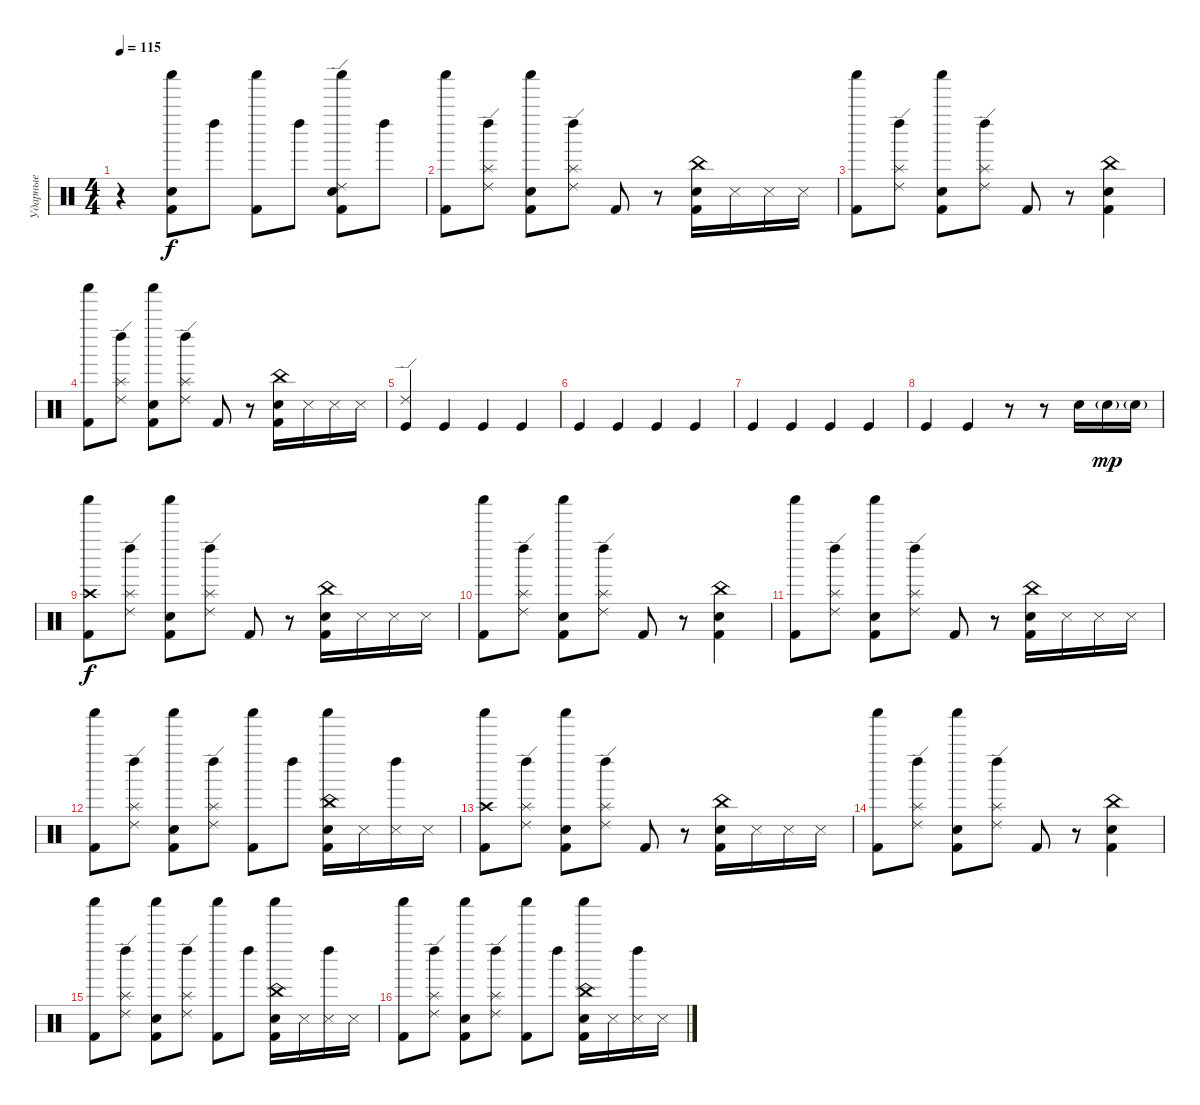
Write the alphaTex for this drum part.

\track ("Ударные" "Ударные") {instrument percussion}
\staff {score}
\articulation defaults
\ts (4 4)
\tempo 115
\clef neutral
\ks c
r.4{dy f} ("Kick (hit) 2" "Snare (hit) 2" "Shaker (hit)").8 "Left Maraca (hit)".8 ("Kick (hit) 2" "Shaker (hit)").8 "Left Maraca (hit)".8 ("Kick (hit) 2" "Ride (edge) 2" "Snare (hit) 2" "Shaker (hit)").8 "Left Maraca (hit)".8 |
("Kick (hit) 2" "Shaker (hit)").8 ("Left Maraca (hit)" "Ride (edge) 2" "Splash (hit)").8 ("Kick (hit) 2" "Snare (hit) 2" "Shaker (hit)").8 ("Left Maraca (hit)" "Ride (edge) 2" "Splash (hit)").8 "Kick (hit) 2".8 r.8 ("Kick (hit) 2" "China (hit)" "Snare (hit) 2").16 "Snare (side stick) 3".16 "Snare (side stick) 3".16 "Snare (side stick) 3".16 |
("Kick (hit) 2" "Shaker (hit)").8 ("Left Maraca (hit)" "Ride (edge) 2" "Splash (hit)").8 ("Kick (hit) 2" "Snare (hit) 2" "Shaker (hit)").8 ("Left Maraca (hit)" "Ride (edge) 2" "Splash (hit)").8 "Kick (hit) 2".8 r.8 ("Kick (hit) 2" "China (hit)" "Snare (hit) 2").4 |
("Kick (hit) 2" "Shaker (hit)").8 ("Left Maraca (hit)" "Ride (edge) 2" "Splash (hit)").8 ("Kick (hit) 2" "Snare (hit) 2" "Shaker (hit)").8 ("Left Maraca (hit)" "Ride (edge) 2" "Splash (hit)").8 "Kick (hit) 2".8 r.8 ("Kick (hit) 2" "China (hit)" "Snare (hit) 2").16 "Snare (side stick) 3".16 "Snare (side stick) 3".16 "Snare (side stick) 3".16 |
("Kick (hit)" "Ride (edge) 2").4 "Kick (hit)".4 "Kick (hit)".4 "Kick (hit)".4 |
"Kick (hit)".4 "Kick (hit)".4 "Kick (hit)".4 "Kick (hit)".4 |
"Kick (hit)".4 "Kick (hit)".4 "Kick (hit)".4 "Kick (hit)".4 |
"Kick (hit)".4 "Kick (hit)".4 r.8 r.8 "Snare (hit) 2".16 "Snare (hit) 2"{g}.16{dy mp} "Snare (hit) 2"{g}.16 |
("Kick (hit) 2" "Shaker (hit)" "Crash high (hit)").8{dy f} ("Left Maraca (hit)" "Ride (edge) 2" "Splash (hit)").8 ("Kick (hit) 2" "Snare (hit) 2" "Shaker (hit)").8 ("Left Maraca (hit)" "Ride (edge) 2" "Splash (hit)").8 "Kick (hit) 2".8 r.8 ("Kick (hit) 2" "China (hit)" "Snare (hit) 2").16 "Snare (side stick) 3".16 "Snare (side stick) 3".16 "Snare (side stick) 3".16 |
("Kick (hit) 2" "Shaker (hit)").8 ("Left Maraca (hit)" "Ride (edge) 2" "Splash (hit)").8 ("Kick (hit) 2" "Snare (hit) 2" "Shaker (hit)").8 ("Left Maraca (hit)" "Ride (edge) 2" "Splash (hit)").8 "Kick (hit) 2".8 r.8 ("Kick (hit) 2" "China (hit)" "Snare (hit) 2").4 |
("Kick (hit) 2" "Shaker (hit)").8 ("Left Maraca (hit)" "Ride (edge) 2" "Splash (hit)").8 ("Kick (hit) 2" "Snare (hit) 2" "Shaker (hit)").8 ("Left Maraca (hit)" "Ride (edge) 2" "Splash (hit)").8 "Kick (hit) 2".8 r.8 ("Kick (hit) 2" "China (hit)" "Snare (hit) 2").16 "Snare (side stick) 3".16 "Snare (side stick) 3".16 "Snare (side stick) 3".16 |
("Kick (hit) 2" "Shaker (hit)").8 ("Left Maraca (hit)" "Ride (edge) 2" "Splash (hit)").8 ("Kick (hit) 2" "Snare (hit) 2" "Shaker (hit)").8 ("Left Maraca (hit)" "Ride (edge) 2" "Splash (hit)").8 ("Kick (hit) 2" "Shaker (hit)").8 "Left Maraca (hit)".8 ("Kick (hit) 2" "China (hit)" "Snare (hit) 2" "Shaker (hit)").16 "Snare (side stick) 3".16 ("Snare (side stick) 3" "Left Maraca (hit)").16 "Snare (side stick) 3".16 |
("Kick (hit) 2" "Shaker (hit)" "Crash high (hit)").8 ("Left Maraca (hit)" "Ride (edge) 2" "Splash (hit)").8 ("Kick (hit) 2" "Snare (hit) 2" "Shaker (hit)").8 ("Left Maraca (hit)" "Ride (edge) 2" "Splash (hit)").8 "Kick (hit) 2".8 r.8 ("Kick (hit) 2" "China (hit)" "Snare (hit) 2").16 "Snare (side stick) 3".16 "Snare (side stick) 3".16 "Snare (side stick) 3".16 |
("Kick (hit) 2" "Shaker (hit)").8 ("Left Maraca (hit)" "Ride (edge) 2" "Splash (hit)").8 ("Kick (hit) 2" "Snare (hit) 2" "Shaker (hit)").8 ("Left Maraca (hit)" "Ride (edge) 2" "Splash (hit)").8 "Kick (hit) 2".8 r.8 ("Kick (hit) 2" "China (hit)" "Snare (hit) 2").4 |
("Kick (hit) 2" "Shaker (hit)").8 ("Left Maraca (hit)" "Ride (edge) 2" "Splash (hit)").8 ("Kick (hit) 2" "Snare (hit) 2" "Shaker (hit)").8 ("Left Maraca (hit)" "Ride (edge) 2" "Splash (hit)").8 ("Kick (hit) 2" "Shaker (hit)").8 "Left Maraca (hit)".8 ("Kick (hit) 2" "China (hit)" "Snare (hit) 2" "Shaker (hit)").16 "Snare (side stick) 3".16 ("Snare (side stick) 3" "Left Maraca (hit)").16 "Snare (side stick) 3".16 |
("Kick (hit) 2" "Shaker (hit)").8 ("Left Maraca (hit)" "Ride (edge) 2" "Splash (hit)").8 ("Kick (hit) 2" "Snare (hit) 2" "Shaker (hit)").8 ("Left Maraca (hit)" "Ride (edge) 2" "Splash (hit)").8 ("Kick (hit) 2" "Shaker (hit)").8 "Left Maraca (hit)".8 ("Kick (hit) 2" "China (hit)" "Snare (hit) 2" "Shaker (hit)").16 "Snare (side stick) 3".16 ("Snare (side stick) 3" "Left Maraca (hit)").16 "Snare (side stick) 3".16
